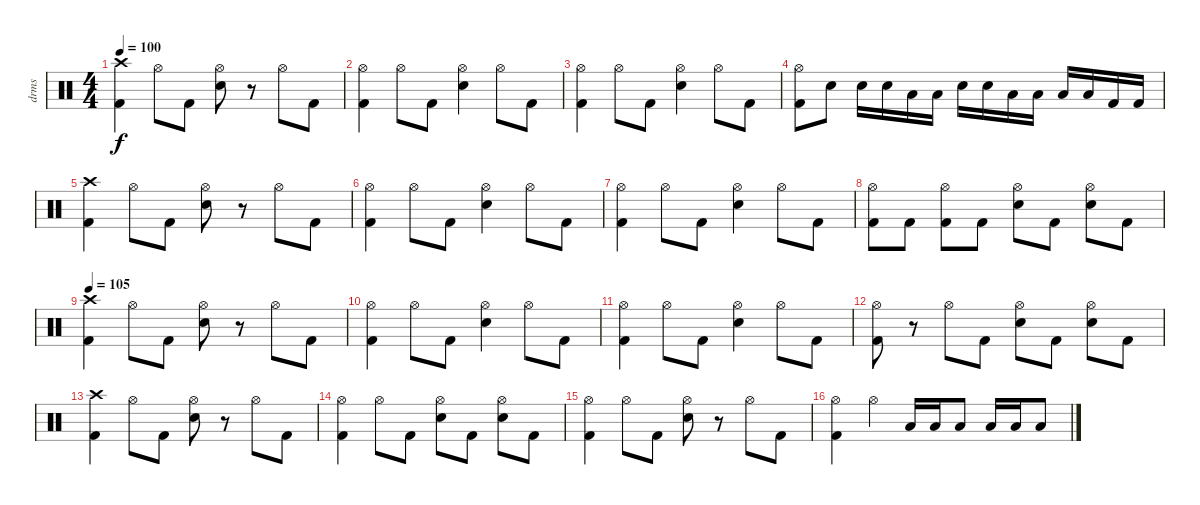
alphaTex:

\track ("drms" "drms") {instrument percussion}
\staff {score}
\articulation defaults
\ts (4 4)
\tempo 100
\clef neutral
\ks c
("Crash high (hit)" "Kick (hit) 2").4{dy f} "Hi-Hat (open)".8 "Kick (hit) 2".8 ("Hi-Hat (open)" "Snare (hit) 2").8 r.8 "Hi-Hat (open)".8 "Kick (hit) 2".8 |
("Hi-Hat (open)" "Kick (hit) 2").4 "Hi-Hat (open)".8 "Kick (hit) 2".8 ("Hi-Hat (open)" "Snare (hit) 2").4 "Hi-Hat (open)".8 "Kick (hit) 2".8 |
("Hi-Hat (open)" "Kick (hit) 2").4 "Hi-Hat (open)".8 "Kick (hit) 2".8 ("Hi-Hat (open)" "Snare (hit) 2").4 "Hi-Hat (open)".8 "Kick (hit) 2".8 |
("Hi-Hat (open)" "Kick (hit) 2").8 "Snare (hit) 2".8 "Snare (hit) 2".16 "Snare (hit) 2".16 "Low Tom (hit)".16 "Low Tom (hit)".16 "Snare (hit) 2".16 "Snare (hit) 2".16 "Low Tom (hit)".16 "Low Tom (hit)".16 "Low Floor Tom (hit)".16 "Low Floor Tom (hit)".16 "Kick (hit) 2".16 "Kick (hit) 2".16 |
("Crash high (hit)" "Kick (hit) 2").4 "Hi-Hat (open)".8 "Kick (hit) 2".8 ("Hi-Hat (open)" "Snare (hit) 2").8 r.8 "Hi-Hat (open)".8 "Kick (hit) 2".8 |
("Hi-Hat (open)" "Kick (hit) 2").4 "Hi-Hat (open)".8 "Kick (hit) 2".8 ("Hi-Hat (open)" "Snare (hit) 2").4 "Hi-Hat (open)".8 "Kick (hit) 2".8 |
("Hi-Hat (open)" "Kick (hit) 2").4 "Hi-Hat (open)".8 "Kick (hit) 2".8 ("Hi-Hat (open)" "Snare (hit) 2").4 "Hi-Hat (open)".8 "Kick (hit) 2".8 |
("Hi-Hat (open)" "Kick (hit) 2").8 "Kick (hit) 2".8 ("Hi-Hat (open)" "Kick (hit) 2").8 "Kick (hit) 2".8 ("Hi-Hat (open)" "Snare (hit) 2").8 "Kick (hit) 2".8 ("Hi-Hat (open)" "Snare (hit) 2").8 "Kick (hit) 2".8 |
\tempo 105
("Crash high (hit)" "Kick (hit) 2").4 "Hi-Hat (open)".8 "Kick (hit) 2".8 ("Hi-Hat (open)" "Snare (hit) 2").8 r.8 "Hi-Hat (open)".8 "Kick (hit) 2".8 |
("Hi-Hat (open)" "Kick (hit) 2").4 "Hi-Hat (open)".8 "Kick (hit) 2".8 ("Hi-Hat (open)" "Snare (hit) 2").4 "Hi-Hat (open)".8 "Kick (hit) 2".8 |
("Hi-Hat (open)" "Kick (hit) 2").4 "Hi-Hat (open)".8 "Kick (hit) 2".8 ("Hi-Hat (open)" "Snare (hit) 2").4 "Hi-Hat (open)".8 "Kick (hit) 2".8 |
("Hi-Hat (open)" "Kick (hit) 2").8 r.8 "Hi-Hat (open)".8 "Kick (hit) 2".8 ("Hi-Hat (open)" "Snare (hit) 2").8 "Kick (hit) 2".8 ("Hi-Hat (open)" "Snare (hit) 2").8 "Kick (hit) 2".8 |
("Crash high (hit)" "Kick (hit) 2").4 "Hi-Hat (open)".8 "Kick (hit) 2".8 ("Hi-Hat (open)" "Snare (hit) 2").8 r.8 "Hi-Hat (open)".8 "Kick (hit) 2".8 |
("Hi-Hat (open)" "Kick (hit) 2").4 "Hi-Hat (open)".8 "Kick (hit) 2".8 ("Hi-Hat (open)" "Snare (hit) 2").8 "Kick (hit) 2".8 ("Hi-Hat (open)" "Snare (hit) 2").8 "Kick (hit) 2".8 |
("Hi-Hat (open)" "Kick (hit) 2").4 "Hi-Hat (open)".8 "Kick (hit) 2".8 ("Hi-Hat (open)" "Snare (hit) 2").8 r.8 "Hi-Hat (open)".8 "Kick (hit) 2".8 |
("Hi-Hat (open)" "Kick (hit) 2").4 "Hi-Hat (open)".4 "Low Tom (hit)".16 "Low Tom (hit)".16 "Low Tom (hit)".8 "Low Floor Tom (hit)".16 "Low Floor Tom (hit)".16 "Low Floor Tom (hit)".8
